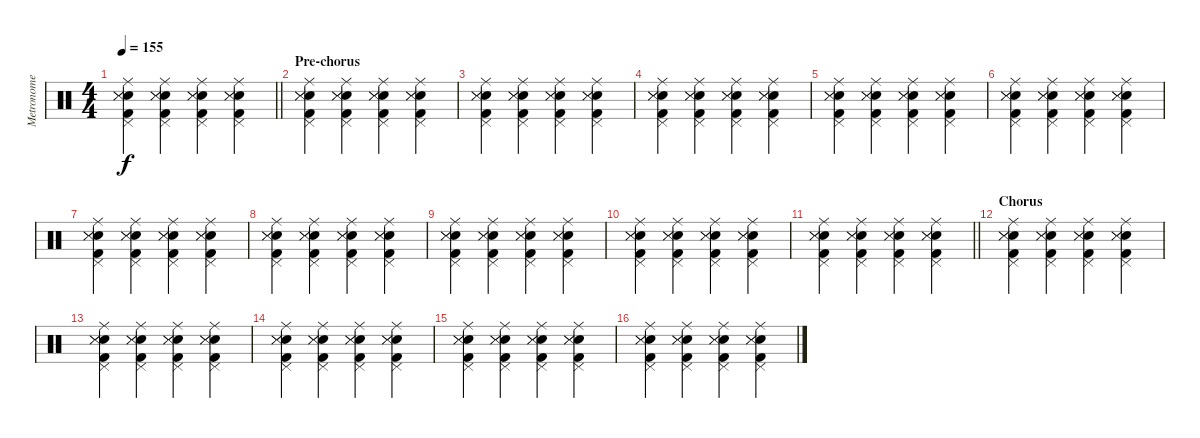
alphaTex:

\track ("Metronome" "Metronome") {mute instrument percussion}
\staff {score}
\articulation defaults
\ts (4 4)
\tempo 155
\clef neutral
\barLineRight lightlight
\ks c
("Ride (middle)" "Pedal Hi-Hat (hit)" "Electric Snare (hit)" "Snare (side stick) 3" "Metronome (hit)" "Kick (hit) 2").4{dy f} ("Ride (middle)" "Pedal Hi-Hat (hit)" "Electric Snare (hit)" "Snare (side stick) 3" "Metronome (hit)" "Kick (hit) 2").4 ("Ride (middle)" "Pedal Hi-Hat (hit)" "Electric Snare (hit)" "Snare (side stick) 3" "Metronome (hit)" "Kick (hit) 2").4 ("Ride (middle)" "Pedal Hi-Hat (hit)" "Electric Snare (hit)" "Snare (side stick) 3" "Metronome (hit)" "Kick (hit) 2").4 |
\section ("" "Pre-chorus")
("Ride (middle)" "Pedal Hi-Hat (hit)" "Electric Snare (hit)" "Snare (side stick) 3" "Metronome (hit)" "Kick (hit) 2").4 ("Ride (middle)" "Pedal Hi-Hat (hit)" "Electric Snare (hit)" "Snare (side stick) 3" "Metronome (hit)" "Kick (hit) 2").4 ("Ride (middle)" "Pedal Hi-Hat (hit)" "Electric Snare (hit)" "Snare (side stick) 3" "Metronome (hit)" "Kick (hit) 2").4 ("Ride (middle)" "Pedal Hi-Hat (hit)" "Electric Snare (hit)" "Snare (side stick) 3" "Metronome (hit)" "Kick (hit) 2").4 |
("Ride (middle)" "Pedal Hi-Hat (hit)" "Electric Snare (hit)" "Snare (side stick) 3" "Metronome (hit)" "Kick (hit) 2").4 ("Ride (middle)" "Pedal Hi-Hat (hit)" "Electric Snare (hit)" "Snare (side stick) 3" "Metronome (hit)" "Kick (hit) 2").4 ("Ride (middle)" "Pedal Hi-Hat (hit)" "Electric Snare (hit)" "Snare (side stick) 3" "Metronome (hit)" "Kick (hit) 2").4 ("Ride (middle)" "Pedal Hi-Hat (hit)" "Electric Snare (hit)" "Snare (side stick) 3" "Metronome (hit)" "Kick (hit) 2").4 |
("Ride (middle)" "Pedal Hi-Hat (hit)" "Electric Snare (hit)" "Snare (side stick) 3" "Metronome (hit)" "Kick (hit) 2").4 ("Ride (middle)" "Pedal Hi-Hat (hit)" "Electric Snare (hit)" "Snare (side stick) 3" "Metronome (hit)" "Kick (hit) 2").4 ("Ride (middle)" "Pedal Hi-Hat (hit)" "Electric Snare (hit)" "Snare (side stick) 3" "Metronome (hit)" "Kick (hit) 2").4 ("Ride (middle)" "Pedal Hi-Hat (hit)" "Electric Snare (hit)" "Snare (side stick) 3" "Metronome (hit)" "Kick (hit) 2").4 |
("Ride (middle)" "Pedal Hi-Hat (hit)" "Electric Snare (hit)" "Snare (side stick) 3" "Metronome (hit)" "Kick (hit) 2").4 ("Ride (middle)" "Pedal Hi-Hat (hit)" "Electric Snare (hit)" "Snare (side stick) 3" "Metronome (hit)" "Kick (hit) 2").4 ("Ride (middle)" "Pedal Hi-Hat (hit)" "Electric Snare (hit)" "Snare (side stick) 3" "Metronome (hit)" "Kick (hit) 2").4 ("Ride (middle)" "Pedal Hi-Hat (hit)" "Electric Snare (hit)" "Snare (side stick) 3" "Metronome (hit)" "Kick (hit) 2").4 |
("Ride (middle)" "Pedal Hi-Hat (hit)" "Electric Snare (hit)" "Snare (side stick) 3" "Metronome (hit)" "Kick (hit) 2").4 ("Ride (middle)" "Pedal Hi-Hat (hit)" "Electric Snare (hit)" "Snare (side stick) 3" "Metronome (hit)" "Kick (hit) 2").4 ("Ride (middle)" "Pedal Hi-Hat (hit)" "Electric Snare (hit)" "Snare (side stick) 3" "Metronome (hit)" "Kick (hit) 2").4 ("Ride (middle)" "Pedal Hi-Hat (hit)" "Electric Snare (hit)" "Snare (side stick) 3" "Metronome (hit)" "Kick (hit) 2").4 |
("Ride (middle)" "Pedal Hi-Hat (hit)" "Electric Snare (hit)" "Snare (side stick) 3" "Metronome (hit)" "Kick (hit) 2").4 ("Ride (middle)" "Pedal Hi-Hat (hit)" "Electric Snare (hit)" "Snare (side stick) 3" "Metronome (hit)" "Kick (hit) 2").4 ("Ride (middle)" "Pedal Hi-Hat (hit)" "Electric Snare (hit)" "Snare (side stick) 3" "Metronome (hit)" "Kick (hit) 2").4 ("Ride (middle)" "Pedal Hi-Hat (hit)" "Electric Snare (hit)" "Snare (side stick) 3" "Metronome (hit)" "Kick (hit) 2").4 |
("Ride (middle)" "Pedal Hi-Hat (hit)" "Electric Snare (hit)" "Snare (side stick) 3" "Metronome (hit)" "Kick (hit) 2").4 ("Ride (middle)" "Pedal Hi-Hat (hit)" "Electric Snare (hit)" "Snare (side stick) 3" "Metronome (hit)" "Kick (hit) 2").4 ("Ride (middle)" "Pedal Hi-Hat (hit)" "Electric Snare (hit)" "Snare (side stick) 3" "Metronome (hit)" "Kick (hit) 2").4 ("Ride (middle)" "Pedal Hi-Hat (hit)" "Electric Snare (hit)" "Snare (side stick) 3" "Metronome (hit)" "Kick (hit) 2").4 |
("Ride (middle)" "Pedal Hi-Hat (hit)" "Electric Snare (hit)" "Snare (side stick) 3" "Metronome (hit)" "Kick (hit) 2").4 ("Ride (middle)" "Pedal Hi-Hat (hit)" "Electric Snare (hit)" "Snare (side stick) 3" "Metronome (hit)" "Kick (hit) 2").4 ("Ride (middle)" "Pedal Hi-Hat (hit)" "Electric Snare (hit)" "Snare (side stick) 3" "Metronome (hit)" "Kick (hit) 2").4 ("Ride (middle)" "Pedal Hi-Hat (hit)" "Electric Snare (hit)" "Snare (side stick) 3" "Metronome (hit)" "Kick (hit) 2").4 |
("Ride (middle)" "Pedal Hi-Hat (hit)" "Electric Snare (hit)" "Snare (side stick) 3" "Metronome (hit)" "Kick (hit) 2").4 ("Ride (middle)" "Pedal Hi-Hat (hit)" "Electric Snare (hit)" "Snare (side stick) 3" "Metronome (hit)" "Kick (hit) 2").4 ("Ride (middle)" "Pedal Hi-Hat (hit)" "Electric Snare (hit)" "Snare (side stick) 3" "Metronome (hit)" "Kick (hit) 2").4 ("Ride (middle)" "Pedal Hi-Hat (hit)" "Electric Snare (hit)" "Snare (side stick) 3" "Metronome (hit)" "Kick (hit) 2").4 |
\barLineRight lightlight
("Ride (middle)" "Pedal Hi-Hat (hit)" "Electric Snare (hit)" "Snare (side stick) 3" "Metronome (hit)" "Kick (hit) 2").4 ("Ride (middle)" "Pedal Hi-Hat (hit)" "Electric Snare (hit)" "Snare (side stick) 3" "Metronome (hit)" "Kick (hit) 2").4 ("Ride (middle)" "Pedal Hi-Hat (hit)" "Electric Snare (hit)" "Snare (side stick) 3" "Metronome (hit)" "Kick (hit) 2").4 ("Ride (middle)" "Pedal Hi-Hat (hit)" "Electric Snare (hit)" "Snare (side stick) 3" "Metronome (hit)" "Kick (hit) 2").4 |
\section ("" "Chorus")
("Ride (middle)" "Pedal Hi-Hat (hit)" "Electric Snare (hit)" "Snare (side stick) 3" "Metronome (hit)" "Kick (hit) 2").4 ("Ride (middle)" "Pedal Hi-Hat (hit)" "Electric Snare (hit)" "Snare (side stick) 3" "Metronome (hit)" "Kick (hit) 2").4 ("Ride (middle)" "Pedal Hi-Hat (hit)" "Electric Snare (hit)" "Snare (side stick) 3" "Metronome (hit)" "Kick (hit) 2").4 ("Ride (middle)" "Pedal Hi-Hat (hit)" "Electric Snare (hit)" "Snare (side stick) 3" "Metronome (hit)" "Kick (hit) 2").4 |
("Ride (middle)" "Pedal Hi-Hat (hit)" "Electric Snare (hit)" "Snare (side stick) 3" "Metronome (hit)" "Kick (hit) 2").4 ("Ride (middle)" "Pedal Hi-Hat (hit)" "Electric Snare (hit)" "Snare (side stick) 3" "Metronome (hit)" "Kick (hit) 2").4 ("Ride (middle)" "Pedal Hi-Hat (hit)" "Electric Snare (hit)" "Snare (side stick) 3" "Metronome (hit)" "Kick (hit) 2").4 ("Ride (middle)" "Pedal Hi-Hat (hit)" "Electric Snare (hit)" "Snare (side stick) 3" "Metronome (hit)" "Kick (hit) 2").4 |
("Ride (middle)" "Pedal Hi-Hat (hit)" "Electric Snare (hit)" "Snare (side stick) 3" "Metronome (hit)" "Kick (hit) 2").4 ("Ride (middle)" "Pedal Hi-Hat (hit)" "Electric Snare (hit)" "Snare (side stick) 3" "Metronome (hit)" "Kick (hit) 2").4 ("Ride (middle)" "Pedal Hi-Hat (hit)" "Electric Snare (hit)" "Snare (side stick) 3" "Metronome (hit)" "Kick (hit) 2").4 ("Ride (middle)" "Pedal Hi-Hat (hit)" "Electric Snare (hit)" "Snare (side stick) 3" "Metronome (hit)" "Kick (hit) 2").4 |
("Ride (middle)" "Pedal Hi-Hat (hit)" "Electric Snare (hit)" "Snare (side stick) 3" "Metronome (hit)" "Kick (hit) 2").4 ("Ride (middle)" "Pedal Hi-Hat (hit)" "Electric Snare (hit)" "Snare (side stick) 3" "Metronome (hit)" "Kick (hit) 2").4 ("Ride (middle)" "Pedal Hi-Hat (hit)" "Electric Snare (hit)" "Snare (side stick) 3" "Metronome (hit)" "Kick (hit) 2").4 ("Ride (middle)" "Pedal Hi-Hat (hit)" "Electric Snare (hit)" "Snare (side stick) 3" "Metronome (hit)" "Kick (hit) 2").4 |
("Ride (middle)" "Pedal Hi-Hat (hit)" "Electric Snare (hit)" "Snare (side stick) 3" "Metronome (hit)" "Kick (hit) 2").4 ("Ride (middle)" "Pedal Hi-Hat (hit)" "Electric Snare (hit)" "Snare (side stick) 3" "Metronome (hit)" "Kick (hit) 2").4 ("Ride (middle)" "Pedal Hi-Hat (hit)" "Electric Snare (hit)" "Snare (side stick) 3" "Metronome (hit)" "Kick (hit) 2").4 ("Ride (middle)" "Pedal Hi-Hat (hit)" "Electric Snare (hit)" "Snare (side stick) 3" "Metronome (hit)" "Kick (hit) 2").4
